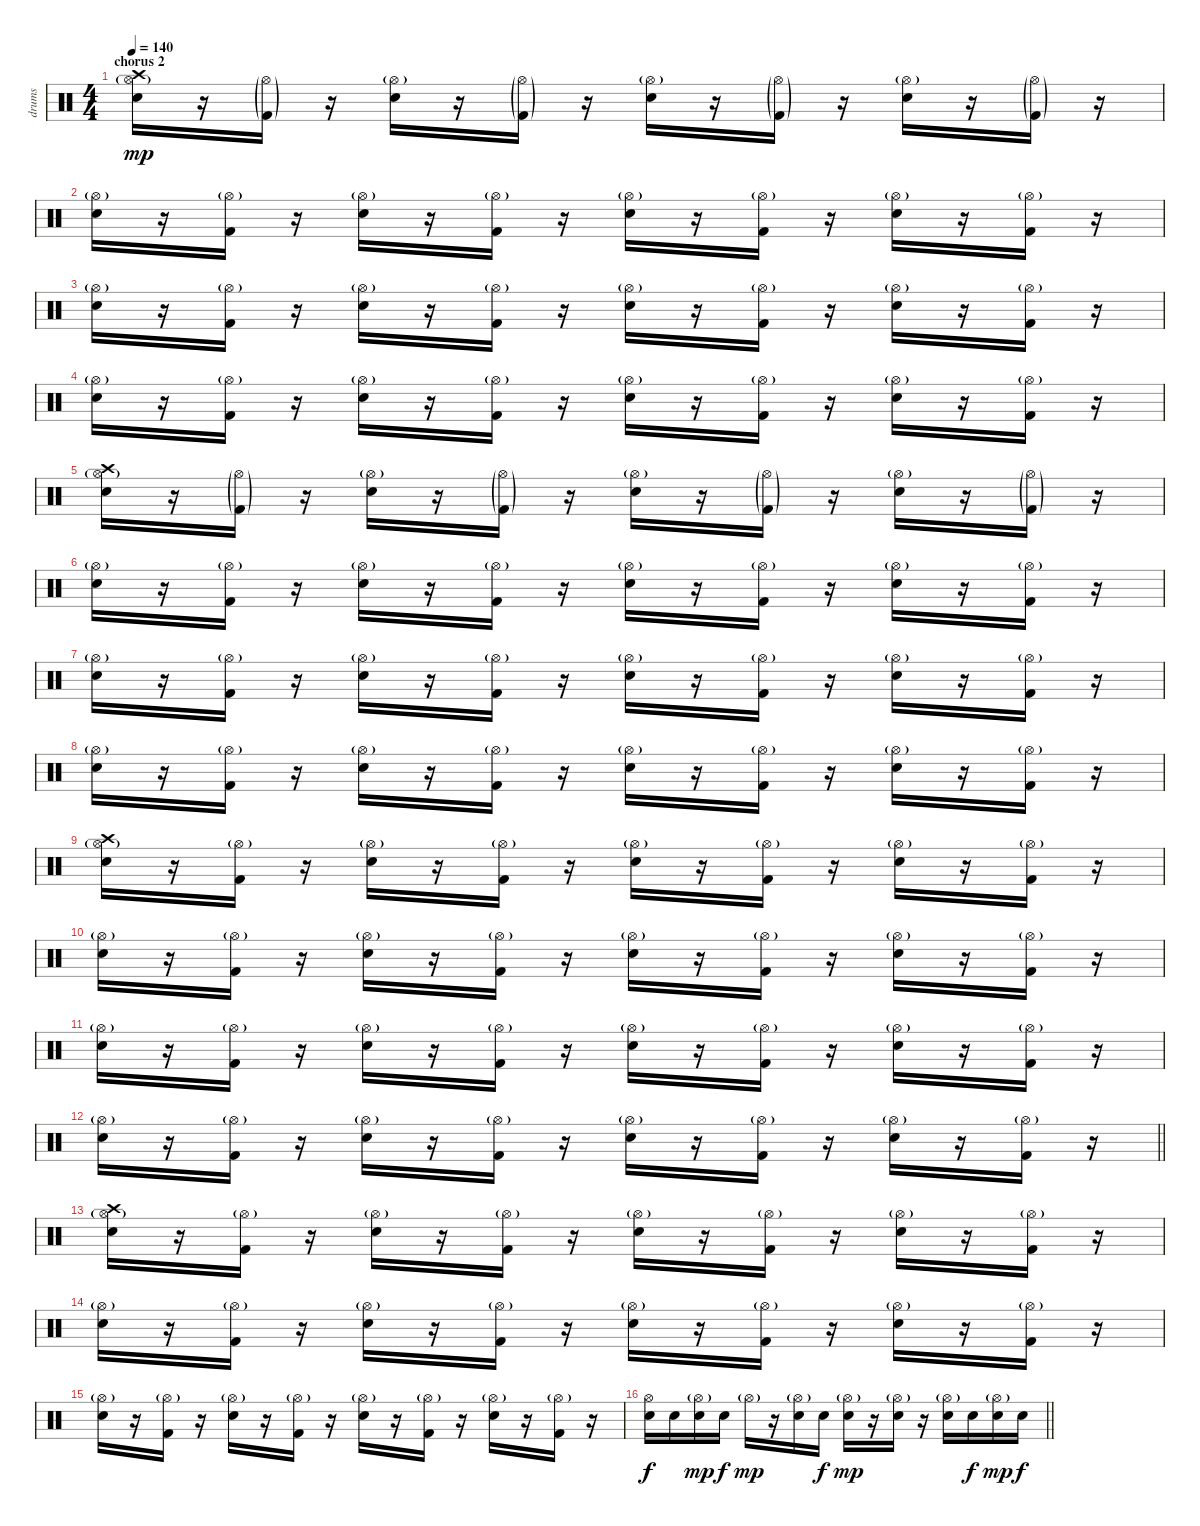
\track ("drums" "drums") {instrument percussion}
\staff {score}
\articulation defaults
\ts (4 4)
\section ("" "chorus 2 ")
\tempo 140
\clef neutral
\ks c
("Electric Snare (hit)" "Hi-Hat (open)"{g} "Crash high (hit)").16{dy mp} r.16 ("Kick (hit) 2"{g} "Hi-Hat (open)"{g}).16 r.16 ("Electric Snare (hit)" "Hi-Hat (open)"{g}).16 r.16 ("Kick (hit) 2"{g} "Hi-Hat (open)"{g}).16 r.16 ("Electric Snare (hit)" "Hi-Hat (open)"{g}).16 r.16 ("Kick (hit) 2"{g} "Hi-Hat (open)"{g}).16 r.16 ("Electric Snare (hit)" "Hi-Hat (open)"{g}).16 r.16 ("Kick (hit) 2"{g} "Hi-Hat (open)"{g}).16 r.16 |
("Electric Snare (hit)" "Hi-Hat (open)"{g}).16 r.16 ("Kick (hit) 2" "Hi-Hat (open)"{g}).16 r.16 ("Electric Snare (hit)" "Hi-Hat (open)"{g}).16 r.16 ("Kick (hit) 2" "Hi-Hat (open)"{g}).16 r.16 ("Electric Snare (hit)" "Hi-Hat (open)"{g}).16 r.16 ("Kick (hit) 2" "Hi-Hat (open)"{g}).16 r.16 ("Electric Snare (hit)" "Hi-Hat (open)"{g}).16 r.16 ("Kick (hit) 2" "Hi-Hat (open)"{g}).16 r.16 |
("Electric Snare (hit)" "Hi-Hat (open)"{g}).16 r.16 ("Kick (hit) 2" "Hi-Hat (open)"{g}).16 r.16 ("Electric Snare (hit)" "Hi-Hat (open)"{g}).16 r.16 ("Kick (hit) 2" "Hi-Hat (open)"{g}).16 r.16 ("Electric Snare (hit)" "Hi-Hat (open)"{g}).16 r.16 ("Kick (hit) 2" "Hi-Hat (open)"{g}).16 r.16 ("Electric Snare (hit)" "Hi-Hat (open)"{g}).16 r.16 ("Kick (hit) 2" "Hi-Hat (open)"{g}).16 r.16 |
("Electric Snare (hit)" "Hi-Hat (open)"{g}).16 r.16 ("Kick (hit) 2" "Hi-Hat (open)"{g}).16 r.16 ("Electric Snare (hit)" "Hi-Hat (open)"{g}).16 r.16 ("Kick (hit) 2" "Hi-Hat (open)"{g}).16 r.16 ("Electric Snare (hit)" "Hi-Hat (open)"{g}).16 r.16 ("Kick (hit) 2" "Hi-Hat (open)"{g}).16 r.16 ("Electric Snare (hit)" "Hi-Hat (open)"{g}).16 r.16 ("Kick (hit) 2" "Hi-Hat (open)"{g}).16 r.16 |
("Electric Snare (hit)" "Hi-Hat (open)"{g} "Crash high (hit)").16 r.16 ("Kick (hit) 2"{g} "Hi-Hat (open)"{g}).16 r.16 ("Electric Snare (hit)" "Hi-Hat (open)"{g}).16 r.16 ("Kick (hit) 2"{g} "Hi-Hat (open)"{g}).16 r.16 ("Electric Snare (hit)" "Hi-Hat (open)"{g}).16 r.16 ("Kick (hit) 2"{g} "Hi-Hat (open)"{g}).16 r.16 ("Electric Snare (hit)" "Hi-Hat (open)"{g}).16 r.16 ("Kick (hit) 2"{g} "Hi-Hat (open)"{g}).16 r.16 |
("Electric Snare (hit)" "Hi-Hat (open)"{g}).16 r.16 ("Kick (hit) 2" "Hi-Hat (open)"{g}).16 r.16 ("Electric Snare (hit)" "Hi-Hat (open)"{g}).16 r.16 ("Kick (hit) 2" "Hi-Hat (open)"{g}).16 r.16 ("Electric Snare (hit)" "Hi-Hat (open)"{g}).16 r.16 ("Kick (hit) 2" "Hi-Hat (open)"{g}).16 r.16 ("Electric Snare (hit)" "Hi-Hat (open)"{g}).16 r.16 ("Kick (hit) 2" "Hi-Hat (open)"{g}).16 r.16 |
("Electric Snare (hit)" "Hi-Hat (open)"{g}).16 r.16 ("Kick (hit) 2" "Hi-Hat (open)"{g}).16 r.16 ("Electric Snare (hit)" "Hi-Hat (open)"{g}).16 r.16 ("Kick (hit) 2" "Hi-Hat (open)"{g}).16 r.16 ("Electric Snare (hit)" "Hi-Hat (open)"{g}).16 r.16 ("Kick (hit) 2" "Hi-Hat (open)"{g}).16 r.16 ("Electric Snare (hit)" "Hi-Hat (open)"{g}).16 r.16 ("Kick (hit) 2" "Hi-Hat (open)"{g}).16 r.16 |
("Electric Snare (hit)" "Hi-Hat (open)"{g}).16 r.16 ("Kick (hit) 2" "Hi-Hat (open)"{g}).16 r.16 ("Electric Snare (hit)" "Hi-Hat (open)"{g}).16 r.16 ("Kick (hit) 2" "Hi-Hat (open)"{g}).16 r.16 ("Electric Snare (hit)" "Hi-Hat (open)"{g}).16 r.16 ("Kick (hit) 2" "Hi-Hat (open)"{g}).16 r.16 ("Electric Snare (hit)" "Hi-Hat (open)"{g}).16 r.16 ("Kick (hit) 2" "Hi-Hat (open)"{g}).16 r.16 |
("Electric Snare (hit)" "Hi-Hat (open)"{g} "Crash high (hit)").16 r.16 ("Kick (hit) 2" "Hi-Hat (open)"{g}).16 r.16 ("Electric Snare (hit)" "Hi-Hat (open)"{g}).16 r.16 ("Kick (hit) 2" "Hi-Hat (open)"{g}).16 r.16 ("Electric Snare (hit)" "Hi-Hat (open)"{g}).16 r.16 ("Kick (hit) 2" "Hi-Hat (open)"{g}).16 r.16 ("Electric Snare (hit)" "Hi-Hat (open)"{g}).16 r.16 ("Kick (hit) 2" "Hi-Hat (open)"{g}).16 r.16 |
("Electric Snare (hit)" "Hi-Hat (open)"{g}).16 r.16 ("Kick (hit) 2" "Hi-Hat (open)"{g}).16 r.16 ("Electric Snare (hit)" "Hi-Hat (open)"{g}).16 r.16 ("Kick (hit) 2" "Hi-Hat (open)"{g}).16 r.16 ("Electric Snare (hit)" "Hi-Hat (open)"{g}).16 r.16 ("Kick (hit) 2" "Hi-Hat (open)"{g}).16 r.16 ("Electric Snare (hit)" "Hi-Hat (open)"{g}).16 r.16 ("Kick (hit) 2" "Hi-Hat (open)"{g}).16 r.16 |
("Electric Snare (hit)" "Hi-Hat (open)"{g}).16 r.16 ("Kick (hit) 2" "Hi-Hat (open)"{g}).16 r.16 ("Electric Snare (hit)" "Hi-Hat (open)"{g}).16 r.16 ("Kick (hit) 2" "Hi-Hat (open)"{g}).16 r.16 ("Electric Snare (hit)" "Hi-Hat (open)"{g}).16 r.16 ("Kick (hit) 2" "Hi-Hat (open)"{g}).16 r.16 ("Electric Snare (hit)" "Hi-Hat (open)"{g}).16 r.16 ("Kick (hit) 2" "Hi-Hat (open)"{g}).16 r.16 |
\barLineRight lightlight
("Electric Snare (hit)" "Hi-Hat (open)"{g}).16 r.16 ("Kick (hit) 2" "Hi-Hat (open)"{g}).16 r.16 ("Electric Snare (hit)" "Hi-Hat (open)"{g}).16 r.16 ("Kick (hit) 2" "Hi-Hat (open)"{g}).16 r.16 ("Electric Snare (hit)" "Hi-Hat (open)"{g}).16 r.16 ("Kick (hit) 2" "Hi-Hat (open)"{g}).16 r.16 ("Electric Snare (hit)" "Hi-Hat (open)"{g}).16 r.16 ("Kick (hit) 2" "Hi-Hat (open)"{g}).16 r.16 |
("Electric Snare (hit)" "Hi-Hat (open)"{g} "Crash high (hit)").16 r.16 ("Kick (hit) 2" "Hi-Hat (open)"{g}).16 r.16 ("Electric Snare (hit)" "Hi-Hat (open)"{g}).16 r.16 ("Kick (hit) 2" "Hi-Hat (open)"{g}).16 r.16 ("Electric Snare (hit)" "Hi-Hat (open)"{g}).16 r.16 ("Kick (hit) 2" "Hi-Hat (open)"{g}).16 r.16 ("Electric Snare (hit)" "Hi-Hat (open)"{g}).16 r.16 ("Kick (hit) 2" "Hi-Hat (open)"{g}).16 r.16 |
("Electric Snare (hit)" "Hi-Hat (open)"{g}).16 r.16 ("Kick (hit) 2" "Hi-Hat (open)"{g}).16 r.16 ("Electric Snare (hit)" "Hi-Hat (open)"{g}).16 r.16 ("Kick (hit) 2" "Hi-Hat (open)"{g}).16 r.16 ("Electric Snare (hit)" "Hi-Hat (open)"{g}).16 r.16 ("Kick (hit) 2" "Hi-Hat (open)"{g}).16 r.16 ("Electric Snare (hit)" "Hi-Hat (open)"{g}).16 r.16 ("Kick (hit) 2" "Hi-Hat (open)"{g}).16 r.16 |
("Electric Snare (hit)" "Hi-Hat (open)"{g}).16 r.16 ("Kick (hit) 2" "Hi-Hat (open)"{g}).16 r.16 ("Electric Snare (hit)" "Hi-Hat (open)"{g}).16 r.16 ("Kick (hit) 2" "Hi-Hat (open)"{g}).16 r.16 ("Electric Snare (hit)" "Hi-Hat (open)"{g}).16 r.16 ("Kick (hit) 2" "Hi-Hat (open)"{g}).16 r.16 ("Electric Snare (hit)" "Hi-Hat (open)"{g}).16 r.16 ("Kick (hit) 2" "Hi-Hat (open)"{g}).16 r.16 |
\barLineRight lightlight
("Electric Snare (hit)" "Hi-Hat (open)").16{dy f} "Electric Snare (hit)".16 ("Electric Snare (hit)" "Hi-Hat (open)"{g}).16{dy mp} "Electric Snare (hit)".16{dy f} "Hi-Hat (open)"{g}.16{dy mp} r.16 ("Electric Snare (hit)" "Hi-Hat (open)"{g}).16 "Electric Snare (hit)".16{dy f} ("Electric Snare (hit)" "Hi-Hat (open)"{g}).16{dy mp} r.16 ("Electric Snare (hit)" "Hi-Hat (open)"{g}).16 r.16 ("Electric Snare (hit)" "Hi-Hat (open)"{g}).16 "Electric Snare (hit)".16{dy f} ("Electric Snare (hit)" "Hi-Hat (open)"{g}).16{dy mp} "Electric Snare (hit)".16{dy f}
